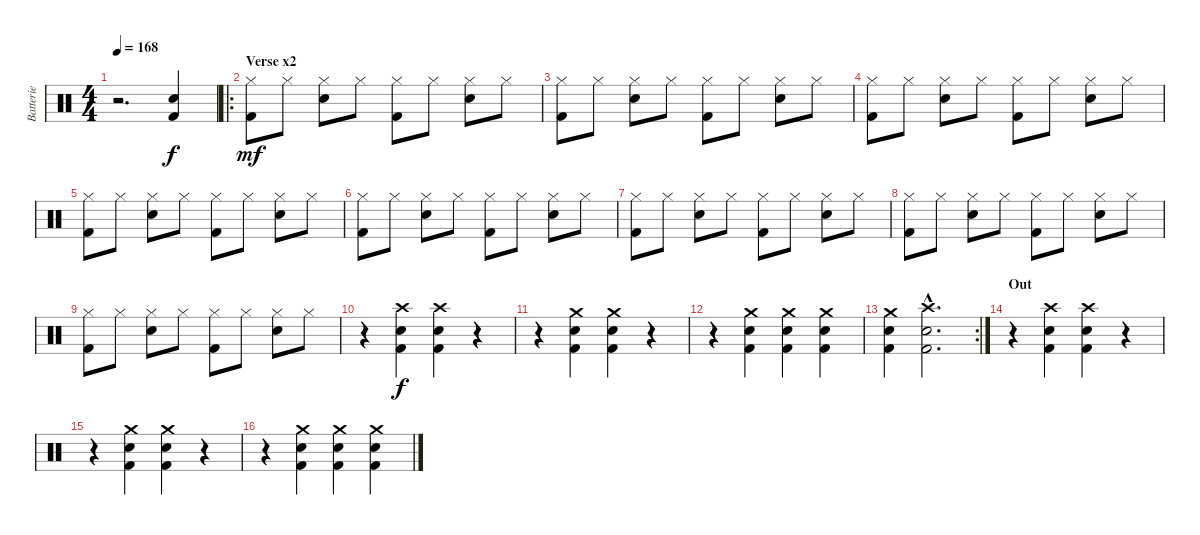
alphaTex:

\track ("Batterie" "Batterie") {instrument percussion}
\staff {score}
\articulation defaults
\ts (4 4)
\tempo 168
\clef neutral
\ks c
r.2{d dy f} ("Snare (hit) 2" "Kick (hit) 2").4 |
\ro
\section ("" "Verse x2")
("Hi-Hat (closed)" "Kick (hit) 2").8{dy mf} "Hi-Hat (closed)".8 ("Hi-Hat (closed)" "Snare (hit) 2").8 "Hi-Hat (closed)".8 ("Hi-Hat (closed)" "Kick (hit) 2").8 "Hi-Hat (closed)".8 ("Hi-Hat (closed)" "Snare (hit) 2").8 "Hi-Hat (closed)".8 |
("Hi-Hat (closed)" "Kick (hit) 2").8 "Hi-Hat (closed)".8 ("Hi-Hat (closed)" "Snare (hit) 2").8 "Hi-Hat (closed)".8 ("Hi-Hat (closed)" "Kick (hit) 2").8 "Hi-Hat (closed)".8 ("Hi-Hat (closed)" "Snare (hit) 2").8 "Hi-Hat (closed)".8 |
("Hi-Hat (closed)" "Kick (hit) 2").8 "Hi-Hat (closed)".8 ("Hi-Hat (closed)" "Snare (hit) 2").8 "Hi-Hat (closed)".8 ("Hi-Hat (closed)" "Kick (hit) 2").8 "Hi-Hat (closed)".8 ("Hi-Hat (closed)" "Snare (hit) 2").8 "Hi-Hat (closed)".8 |
("Hi-Hat (closed)" "Kick (hit) 2").8 "Hi-Hat (closed)".8 ("Hi-Hat (closed)" "Snare (hit) 2").8 "Hi-Hat (closed)".8 ("Hi-Hat (closed)" "Kick (hit) 2").8 "Hi-Hat (closed)".8 ("Hi-Hat (closed)" "Snare (hit) 2").8 "Hi-Hat (closed)".8 |
("Hi-Hat (closed)" "Kick (hit) 2").8 "Hi-Hat (closed)".8 ("Hi-Hat (closed)" "Snare (hit) 2").8 "Hi-Hat (closed)".8 ("Hi-Hat (closed)" "Kick (hit) 2").8 "Hi-Hat (closed)".8 ("Hi-Hat (closed)" "Snare (hit) 2").8 "Hi-Hat (closed)".8 |
("Hi-Hat (closed)" "Kick (hit) 2").8 "Hi-Hat (closed)".8 ("Hi-Hat (closed)" "Snare (hit) 2").8 "Hi-Hat (closed)".8 ("Hi-Hat (closed)" "Kick (hit) 2").8 "Hi-Hat (closed)".8 ("Hi-Hat (closed)" "Snare (hit) 2").8 "Hi-Hat (closed)".8 |
("Hi-Hat (closed)" "Kick (hit) 2").8 "Hi-Hat (closed)".8 ("Hi-Hat (closed)" "Snare (hit) 2").8 "Hi-Hat (closed)".8 ("Hi-Hat (closed)" "Kick (hit) 2").8 "Hi-Hat (closed)".8 ("Hi-Hat (closed)" "Snare (hit) 2").8 "Hi-Hat (closed)".8 |
("Hi-Hat (closed)" "Kick (hit) 2").8 "Hi-Hat (closed)".8 ("Hi-Hat (closed)" "Snare (hit) 2").8 "Hi-Hat (closed)".8 ("Hi-Hat (closed)" "Kick (hit) 2").8 "Hi-Hat (closed)".8 ("Hi-Hat (closed)" "Snare (hit) 2").8 "Hi-Hat (closed)".8 |
r.4 ("Crash high (hit)" "Snare (hit) 2" "Kick (hit) 2").4{dy f} ("Crash high (hit)" "Snare (hit) 2" "Kick (hit) 2").4 r.4 |
r.4 ("Crash medium (hit)" "Snare (hit) 2" "Kick (hit) 2").4 ("Crash medium (hit)" "Snare (hit) 2" "Kick (hit) 2").4 r.4 |
r.4 ("Crash medium (hit)" "Snare (hit) 2" "Kick (hit) 2").4 ("Crash medium (hit)" "Snare (hit) 2" "Kick (hit) 2").4 ("Crash medium (hit)" "Snare (hit) 2" "Kick (hit) 2").4 |
\rc 2
("Crash medium (hit)" "Snare (hit) 2" "Kick (hit) 2").4 ("Crash high (hit)"{hac} "Snare (hit) 2"{hac} "Kick (hit) 2"{hac}).2{d} |
\section ("" "Out")
r.4 ("Crash high (hit)" "Snare (hit) 2" "Kick (hit) 2").4 ("Crash high (hit)" "Snare (hit) 2" "Kick (hit) 2").4 r.4 |
r.4 ("Crash medium (hit)" "Snare (hit) 2" "Kick (hit) 2").4 ("Crash medium (hit)" "Snare (hit) 2" "Kick (hit) 2").4 r.4 |
r.4 ("Crash medium (hit)" "Snare (hit) 2" "Kick (hit) 2").4 ("Crash medium (hit)" "Snare (hit) 2" "Kick (hit) 2").4 ("Crash medium (hit)" "Snare (hit) 2" "Kick (hit) 2").4
